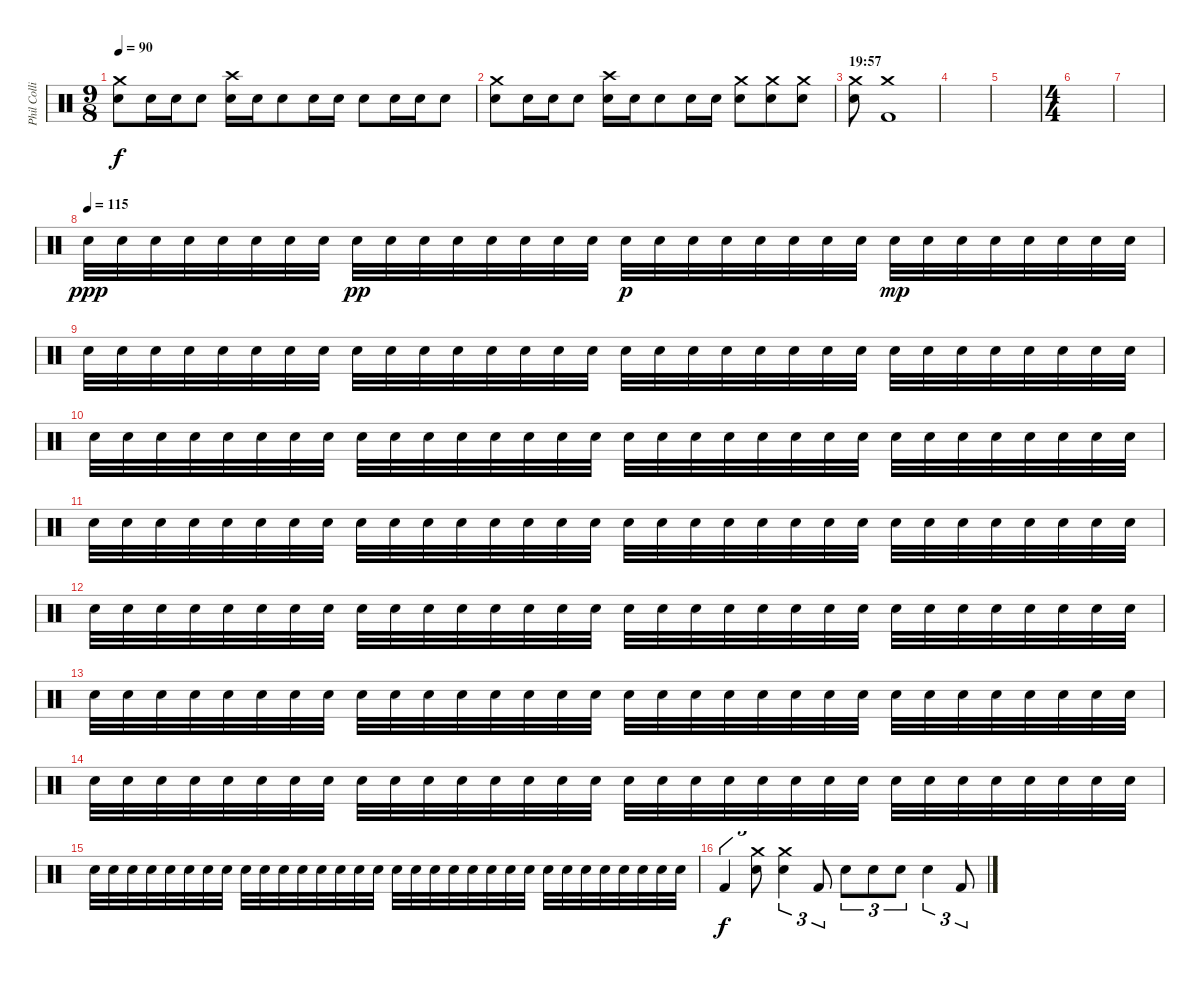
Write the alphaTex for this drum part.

\track ("Phil Collins (drums)" "Phil Colli") {instrument percussion}
\staff {score}
\articulation defaults
\ts (9 8)
\tempo 90
\clef neutral
\ks c
("Crash medium (hit)" "Electric Snare (hit)").8{dy f} "Electric Snare (hit)".16 "Electric Snare (hit)".16 "Electric Snare (hit)".8 ("Crash high (hit)" "Electric Snare (hit)").16 "Electric Snare (hit)".16 "Electric Snare (hit)".8 "Electric Snare (hit)".16 "Electric Snare (hit)".16 "Electric Snare (hit)".8 "Electric Snare (hit)".16 "Electric Snare (hit)".16 "Electric Snare (hit)".8 |
("Crash medium (hit)" "Electric Snare (hit)").8 "Electric Snare (hit)".16 "Electric Snare (hit)".16 "Electric Snare (hit)".8 ("Crash high (hit)" "Electric Snare (hit)").16 "Electric Snare (hit)".16 "Electric Snare (hit)".8 "Electric Snare (hit)".16 "Electric Snare (hit)".16 ("Crash medium (hit)" "Electric Snare (hit)").8 ("Crash medium (hit)" "Electric Snare (hit)").8 ("Crash medium (hit)" "Electric Snare (hit)").8 |
\section ("" "19:57")
("Crash medium (hit)" "Electric Snare (hit)").8 ("Crash medium (hit)" "Kick (hit) 2").1 |
|
|
\ts (4 4)
|
|
\tempo (115)
"Electric Snare (hit)".32{dy ppp} "Electric Snare (hit)".32 "Electric Snare (hit)".32 "Electric Snare (hit)".32 "Electric Snare (hit)".32 "Electric Snare (hit)".32 "Electric Snare (hit)".32 "Electric Snare (hit)".32 "Electric Snare (hit)".32{dy pp} "Electric Snare (hit)".32 "Electric Snare (hit)".32 "Electric Snare (hit)".32 "Electric Snare (hit)".32 "Electric Snare (hit)".32 "Electric Snare (hit)".32 "Electric Snare (hit)".32 "Electric Snare (hit)".32{dy p} "Electric Snare (hit)".32 "Electric Snare (hit)".32 "Electric Snare (hit)".32 "Electric Snare (hit)".32 "Electric Snare (hit)".32 "Electric Snare (hit)".32 "Electric Snare (hit)".32 "Electric Snare (hit)".32{dy mp} "Electric Snare (hit)".32 "Electric Snare (hit)".32 "Electric Snare (hit)".32 "Electric Snare (hit)".32 "Electric Snare (hit)".32 "Electric Snare (hit)".32 "Electric Snare (hit)".32 |
"Electric Snare (hit)".32 "Electric Snare (hit)".32 "Electric Snare (hit)".32 "Electric Snare (hit)".32 "Electric Snare (hit)".32 "Electric Snare (hit)".32 "Electric Snare (hit)".32 "Electric Snare (hit)".32 "Electric Snare (hit)".32 "Electric Snare (hit)".32 "Electric Snare (hit)".32 "Electric Snare (hit)".32 "Electric Snare (hit)".32 "Electric Snare (hit)".32 "Electric Snare (hit)".32 "Electric Snare (hit)".32 "Electric Snare (hit)".32 "Electric Snare (hit)".32 "Electric Snare (hit)".32 "Electric Snare (hit)".32 "Electric Snare (hit)".32 "Electric Snare (hit)".32 "Electric Snare (hit)".32 "Electric Snare (hit)".32 "Electric Snare (hit)".32 "Electric Snare (hit)".32 "Electric Snare (hit)".32 "Electric Snare (hit)".32 "Electric Snare (hit)".32 "Electric Snare (hit)".32 "Electric Snare (hit)".32 "Electric Snare (hit)".32 |
"Electric Snare (hit)".32 "Electric Snare (hit)".32 "Electric Snare (hit)".32 "Electric Snare (hit)".32 "Electric Snare (hit)".32 "Electric Snare (hit)".32 "Electric Snare (hit)".32 "Electric Snare (hit)".32 "Electric Snare (hit)".32 "Electric Snare (hit)".32 "Electric Snare (hit)".32 "Electric Snare (hit)".32 "Electric Snare (hit)".32 "Electric Snare (hit)".32 "Electric Snare (hit)".32 "Electric Snare (hit)".32 "Electric Snare (hit)".32 "Electric Snare (hit)".32 "Electric Snare (hit)".32 "Electric Snare (hit)".32 "Electric Snare (hit)".32 "Electric Snare (hit)".32 "Electric Snare (hit)".32 "Electric Snare (hit)".32 "Electric Snare (hit)".32 "Electric Snare (hit)".32 "Electric Snare (hit)".32 "Electric Snare (hit)".32 "Electric Snare (hit)".32 "Electric Snare (hit)".32 "Electric Snare (hit)".32 "Electric Snare (hit)".32 |
"Electric Snare (hit)".32 "Electric Snare (hit)".32 "Electric Snare (hit)".32 "Electric Snare (hit)".32 "Electric Snare (hit)".32 "Electric Snare (hit)".32 "Electric Snare (hit)".32 "Electric Snare (hit)".32 "Electric Snare (hit)".32 "Electric Snare (hit)".32 "Electric Snare (hit)".32 "Electric Snare (hit)".32 "Electric Snare (hit)".32 "Electric Snare (hit)".32 "Electric Snare (hit)".32 "Electric Snare (hit)".32 "Electric Snare (hit)".32 "Electric Snare (hit)".32 "Electric Snare (hit)".32 "Electric Snare (hit)".32 "Electric Snare (hit)".32 "Electric Snare (hit)".32 "Electric Snare (hit)".32 "Electric Snare (hit)".32 "Electric Snare (hit)".32 "Electric Snare (hit)".32 "Electric Snare (hit)".32 "Electric Snare (hit)".32 "Electric Snare (hit)".32 "Electric Snare (hit)".32 "Electric Snare (hit)".32 "Electric Snare (hit)".32 |
"Electric Snare (hit)".32 "Electric Snare (hit)".32 "Electric Snare (hit)".32 "Electric Snare (hit)".32 "Electric Snare (hit)".32 "Electric Snare (hit)".32 "Electric Snare (hit)".32 "Electric Snare (hit)".32 "Electric Snare (hit)".32 "Electric Snare (hit)".32 "Electric Snare (hit)".32 "Electric Snare (hit)".32 "Electric Snare (hit)".32 "Electric Snare (hit)".32 "Electric Snare (hit)".32 "Electric Snare (hit)".32 "Electric Snare (hit)".32 "Electric Snare (hit)".32 "Electric Snare (hit)".32 "Electric Snare (hit)".32 "Electric Snare (hit)".32 "Electric Snare (hit)".32 "Electric Snare (hit)".32 "Electric Snare (hit)".32 "Electric Snare (hit)".32 "Electric Snare (hit)".32 "Electric Snare (hit)".32 "Electric Snare (hit)".32 "Electric Snare (hit)".32 "Electric Snare (hit)".32 "Electric Snare (hit)".32 "Electric Snare (hit)".32 |
"Electric Snare (hit)".32 "Electric Snare (hit)".32 "Electric Snare (hit)".32 "Electric Snare (hit)".32 "Electric Snare (hit)".32 "Electric Snare (hit)".32 "Electric Snare (hit)".32 "Electric Snare (hit)".32 "Electric Snare (hit)".32 "Electric Snare (hit)".32 "Electric Snare (hit)".32 "Electric Snare (hit)".32 "Electric Snare (hit)".32 "Electric Snare (hit)".32 "Electric Snare (hit)".32 "Electric Snare (hit)".32 "Electric Snare (hit)".32 "Electric Snare (hit)".32 "Electric Snare (hit)".32 "Electric Snare (hit)".32 "Electric Snare (hit)".32 "Electric Snare (hit)".32 "Electric Snare (hit)".32 "Electric Snare (hit)".32 "Electric Snare (hit)".32 "Electric Snare (hit)".32 "Electric Snare (hit)".32 "Electric Snare (hit)".32 "Electric Snare (hit)".32 "Electric Snare (hit)".32 "Electric Snare (hit)".32 "Electric Snare (hit)".32 |
"Electric Snare (hit)".32 "Electric Snare (hit)".32 "Electric Snare (hit)".32 "Electric Snare (hit)".32 "Electric Snare (hit)".32 "Electric Snare (hit)".32 "Electric Snare (hit)".32 "Electric Snare (hit)".32 "Electric Snare (hit)".32 "Electric Snare (hit)".32 "Electric Snare (hit)".32 "Electric Snare (hit)".32 "Electric Snare (hit)".32 "Electric Snare (hit)".32 "Electric Snare (hit)".32 "Electric Snare (hit)".32 "Electric Snare (hit)".32 "Electric Snare (hit)".32 "Electric Snare (hit)".32 "Electric Snare (hit)".32 "Electric Snare (hit)".32 "Electric Snare (hit)".32 "Electric Snare (hit)".32 "Electric Snare (hit)".32 "Electric Snare (hit)".32 "Electric Snare (hit)".32 "Electric Snare (hit)".32 "Electric Snare (hit)".32 "Electric Snare (hit)".32 "Electric Snare (hit)".32 "Electric Snare (hit)".32 "Electric Snare (hit)".32 |
"Electric Snare (hit)".32 "Electric Snare (hit)".32 "Electric Snare (hit)".32 "Electric Snare (hit)".32 "Electric Snare (hit)".32 "Electric Snare (hit)".32 "Electric Snare (hit)".32 "Electric Snare (hit)".32 "Electric Snare (hit)".32 "Electric Snare (hit)".32 "Electric Snare (hit)".32 "Electric Snare (hit)".32 "Electric Snare (hit)".32 "Electric Snare (hit)".32 "Electric Snare (hit)".32 "Electric Snare (hit)".32 "Electric Snare (hit)".32 "Electric Snare (hit)".32 "Electric Snare (hit)".32 "Electric Snare (hit)".32 "Electric Snare (hit)".32 "Electric Snare (hit)".32 "Electric Snare (hit)".32 "Electric Snare (hit)".32 "Electric Snare (hit)".32 "Electric Snare (hit)".32 "Electric Snare (hit)".32 "Electric Snare (hit)".32 "Electric Snare (hit)".32 "Electric Snare (hit)".32 "Electric Snare (hit)".32 "Electric Snare (hit)".32 |
"Kick (hit) 2".4{tu (3 2) dy f} ("Crash medium (hit)" "Electric Snare (hit)").8{tu (3 2)} ("Crash medium (hit)" "Electric Snare (hit)").4{tu (3 2)} "Kick (hit) 2".8{tu (3 2)} "Electric Snare (hit)".8{tu (3 2)} "Electric Snare (hit)".8{tu (3 2)} "Electric Snare (hit)".8{tu (3 2)} "Electric Snare (hit)".4{tu (3 2)} "Kick (hit) 2".8{tu (3 2)}
